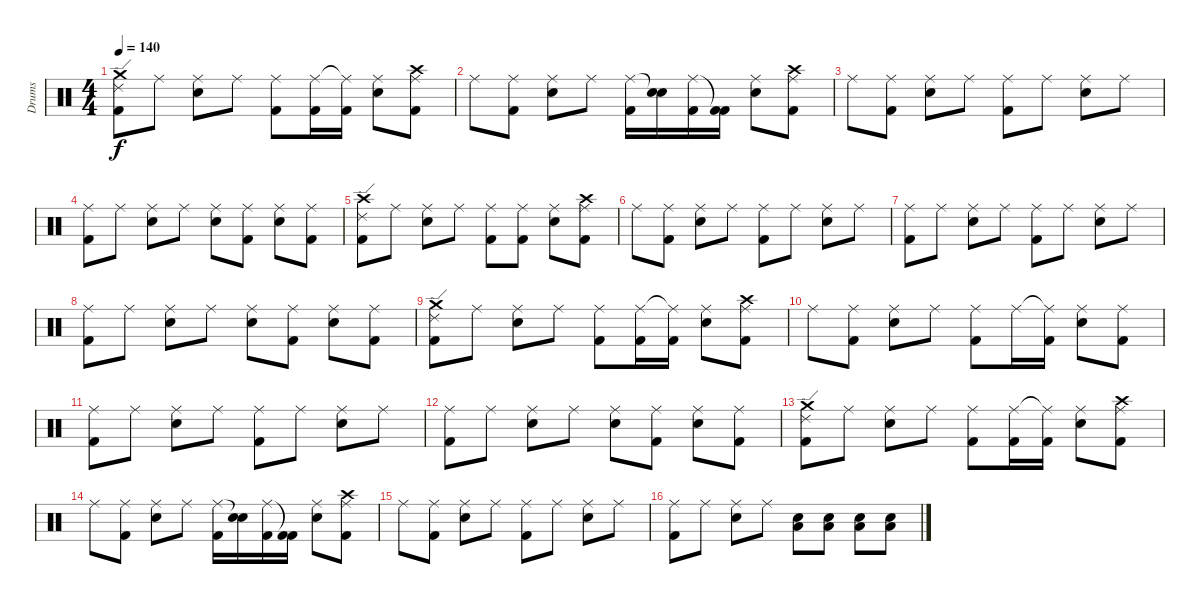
\track ("Drums" "Drums") {instrument percussion}
\staff {score}
\articulation defaults
\ts (4 4)
\tempo 140
\clef neutral
\ks c
("Ride (edge) 2" "Kick (hit) 2" "Crash medium (hit)").8{dy f} "Ride (middle)".8 ("Ride (middle)" "Electric Snare (hit)").8 "Ride (middle)".8 ("Ride (middle)" "Kick (hit) 2").8 ("Ride (middle)" "Kick (hit) 2").16 ("Ride (middle)"{t} "Kick (hit) 2").16 ("Ride (middle)" "Electric Snare (hit)").8 ("Ride (middle)" "Kick (hit) 2" "Crash high (hit)").8 |
"Ride (middle)".8 ("Ride (middle)" "Kick (hit) 2").8 ("Ride (middle)" "Electric Snare (hit)").8 "Ride (middle)".8 ("Ride (middle)" "Kick (hit) 2").16 ("Electric Snare (hit)"{t} "Electric Snare (hit)").16 ("Ride (middle)" "Kick (hit) 2").16 ("Kick (hit) 2"{t} "Kick (hit) 2").16 ("Ride (middle)" "Electric Snare (hit)").8 ("Ride (middle)" "Kick (hit) 2" "Crash high (hit)").8 |
"Ride (middle)".8 ("Ride (middle)" "Kick (hit) 2").8 ("Ride (middle)" "Electric Snare (hit)").8 "Ride (middle)".8 ("Ride (middle)" "Kick (hit) 2").8 "Ride (middle)".8 ("Ride (middle)" "Electric Snare (hit)").8 "Ride (middle)".8 |
("Ride (middle)" "Kick (hit) 2").8 "Ride (middle)".8 ("Ride (middle)" "Electric Snare (hit)").8 "Ride (middle)".8 ("Ride (middle)" "Electric Snare (hit)").8 ("Ride (middle)" "Kick (hit) 2").8 ("Ride (middle)" "Electric Snare (hit)").8 ("Ride (middle)" "Kick (hit) 2").8 |
("Ride (edge) 2" "Kick (hit) 2" "Crash high (hit)").8 "Ride (middle)".8 ("Ride (middle)" "Electric Snare (hit)").8 "Ride (middle)".8 ("Ride (middle)" "Kick (hit) 2").8 ("Ride (middle)" "Kick (hit) 2").8 ("Ride (middle)" "Electric Snare (hit)").8 ("Ride (middle)" "Kick (hit) 2" "Crash high (hit)").8 |
"Ride (middle)".8 ("Ride (middle)" "Kick (hit) 2").8 ("Ride (middle)" "Electric Snare (hit)").8 "Ride (middle)".8 ("Ride (middle)" "Kick (hit) 2").8 "Ride (middle)".8 ("Ride (middle)" "Electric Snare (hit)").8 "Ride (middle)".8 |
("Ride (middle)" "Kick (hit) 2").8 "Ride (middle)".8 ("Ride (middle)" "Electric Snare (hit)").8 "Ride (middle)".8 ("Ride (middle)" "Kick (hit) 2").8 "Ride (middle)".8 ("Ride (middle)" "Electric Snare (hit)").8 "Ride (middle)".8 |
("Ride (middle)" "Kick (hit) 2").8 "Ride (middle)".8 ("Ride (middle)" "Electric Snare (hit)").8 "Ride (middle)".8 ("Ride (middle)" "Electric Snare (hit)").8 ("Ride (middle)" "Kick (hit) 2").8 ("Ride (middle)" "Electric Snare (hit)").8 ("Ride (middle)" "Kick (hit) 2").8 |
("Ride (edge) 2" "Kick (hit) 2" "Crash medium (hit)").8 "Ride (middle)".8 ("Ride (middle)" "Electric Snare (hit)").8 "Ride (middle)".8 ("Ride (middle)" "Kick (hit) 2").8 ("Ride (middle)" "Kick (hit) 2").16 ("Ride (middle)"{t} "Kick (hit) 2").16 ("Ride (middle)" "Electric Snare (hit)").8 ("Ride (middle)" "Kick (hit) 2" "Crash high (hit)").8 |
"Ride (middle)".8 ("Ride (middle)" "Kick (hit) 2").8 ("Ride (middle)" "Electric Snare (hit)").8 "Ride (middle)".8 ("Ride (middle)" "Kick (hit) 2").8 "Ride (middle)".16 ("Ride (middle)"{t} "Kick (hit) 2").16 ("Ride (middle)" "Electric Snare (hit)").8 ("Ride (middle)" "Kick (hit) 2").8 |
("Ride (middle)" "Kick (hit) 2").8 "Ride (middle)".8 ("Ride (middle)" "Electric Snare (hit)").8 "Ride (middle)".8 ("Ride (middle)" "Kick (hit) 2").8 "Ride (middle)".8 ("Ride (middle)" "Electric Snare (hit)").8 "Ride (middle)".8 |
("Ride (middle)" "Kick (hit) 2").8 "Ride (middle)".8 ("Ride (middle)" "Electric Snare (hit)").8 "Ride (middle)".8 ("Ride (middle)" "Electric Snare (hit)").8 ("Ride (middle)" "Kick (hit) 2").8 ("Ride (middle)" "Electric Snare (hit)").8 ("Ride (middle)" "Kick (hit) 2").8 |
("Ride (edge) 2" "Kick (hit) 2" "Crash medium (hit)").8 "Ride (middle)".8 ("Ride (middle)" "Electric Snare (hit)").8 "Ride (middle)".8 ("Ride (middle)" "Kick (hit) 2").8 ("Ride (middle)" "Kick (hit) 2").16 ("Ride (middle)"{t} "Kick (hit) 2").16 ("Ride (middle)" "Electric Snare (hit)").8 ("Ride (middle)" "Kick (hit) 2" "Crash high (hit)").8 |
"Ride (middle)".8 ("Ride (middle)" "Kick (hit) 2").8 ("Ride (middle)" "Electric Snare (hit)").8 "Ride (middle)".8 ("Ride (middle)" "Kick (hit) 2").16 ("Electric Snare (hit)"{t} "Electric Snare (hit)").16 ("Ride (middle)" "Kick (hit) 2").16 ("Kick (hit) 2"{t} "Kick (hit) 2").16 ("Ride (middle)" "Electric Snare (hit)").8 ("Ride (middle)" "Kick (hit) 2" "Crash high (hit)").8 |
"Ride (middle)".8 ("Ride (middle)" "Kick (hit) 2").8 ("Ride (middle)" "Electric Snare (hit)").8 "Ride (middle)".8 ("Ride (middle)" "Kick (hit) 2").8 "Ride (middle)".8 ("Ride (middle)" "Electric Snare (hit)").8 "Ride (middle)".8 |
("Ride (middle)" "Kick (hit) 2").8 "Ride (middle)".8 ("Ride (middle)" "Electric Snare (hit)").8 "Ride (middle)".8 ("Low Floor Tom (hit)" "Electric Snare (hit)").8 ("Low Floor Tom (hit)" "Electric Snare (hit)").8 ("Low Floor Tom (hit)" "Electric Snare (hit)").8 ("Low Floor Tom (hit)" "Electric Snare (hit)").8
